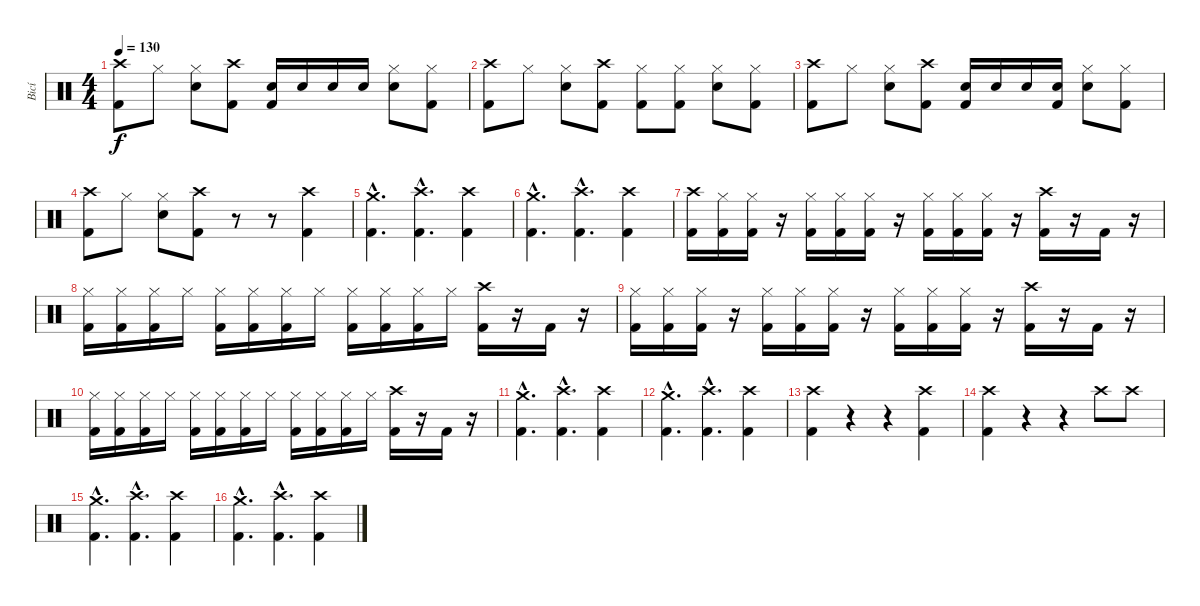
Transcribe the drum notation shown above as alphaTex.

\track ("Bicí" "Bicí") {instrument percussion}
\staff {score}
\articulation defaults
\ts (4 4)
\tempo 130
\clef neutral
\ks c
("Crash high (hit)" "Kick (hit) 2").8{dy f} "Hi-Hat (closed)".8 ("Hi-Hat (closed)" "Snare (hit) 2").8 ("Crash high (hit)" "Kick (hit) 2").8 ("Snare (hit) 2" "Kick (hit) 2").16 "Snare (hit) 2".16 "Snare (hit) 2".16 "Snare (hit) 2".16 ("Hi-Hat (closed)" "Snare (hit) 2").8 ("Hi-Hat (closed)" "Kick (hit) 2").8 |
("Crash high (hit)" "Kick (hit) 2").8 "Hi-Hat (closed)".8 ("Hi-Hat (closed)" "Snare (hit) 2").8 ("Crash high (hit)" "Kick (hit) 2").8 ("Hi-Hat (closed)" "Kick (hit) 2").8 ("Hi-Hat (closed)" "Kick (hit) 2").8 ("Hi-Hat (closed)" "Snare (hit) 2").8 ("Hi-Hat (closed)" "Kick (hit) 2").8 |
("Crash high (hit)" "Kick (hit) 2").8 "Hi-Hat (closed)".8 ("Hi-Hat (closed)" "Snare (hit) 2").8 ("Crash high (hit)" "Kick (hit) 2").8 ("Snare (hit) 2" "Kick (hit) 2").16 "Snare (hit) 2".16 "Snare (hit) 2".16 ("Snare (hit) 2" "Kick (hit) 2").16 ("Hi-Hat (closed)" "Snare (hit) 2").8 ("Hi-Hat (closed)" "Kick (hit) 2").8 |
("Crash high (hit)" "Kick (hit) 2").8 "Hi-Hat (closed)".8 ("Hi-Hat (closed)" "Snare (hit) 2").8 ("Crash high (hit)" "Kick (hit) 2").8 r.8 r.8 ("Crash high (hit)" "Kick (hit) 2").4 |
("Crash medium (hit)"{hac} "Kick (hit) 2"{hac}).4{d} ("Crash high (hit)"{hac} "Kick (hit) 2"{hac}).4{d} ("Crash high (hit)" "Kick (hit) 2").4 |
("Crash medium (hit)"{hac} "Kick (hit) 2"{hac}).4{d} ("Crash high (hit)"{hac} "Kick (hit) 2"{hac}).4{d} ("Crash high (hit)" "Kick (hit) 2").4 |
("Crash high (hit)" "Kick (hit) 2").16 ("Hi-Hat (closed)" "Kick (hit) 2").16 ("Hi-Hat (closed)" "Kick (hit) 2").16 r.16 ("Hi-Hat (closed)" "Kick (hit) 2").16 ("Hi-Hat (closed)" "Kick (hit) 2").16 ("Hi-Hat (closed)" "Kick (hit) 2").16 r.16 ("Hi-Hat (closed)" "Kick (hit) 2").16 ("Hi-Hat (closed)" "Kick (hit) 2").16 ("Hi-Hat (closed)" "Kick (hit) 2").16 r.16 ("Crash high (hit)" "Kick (hit) 2").16 r.16 "Kick (hit) 2".16 r.16 |
("Hi-Hat (closed)" "Kick (hit) 2").16 ("Hi-Hat (closed)" "Kick (hit) 2").16 ("Hi-Hat (closed)" "Kick (hit) 2").16 "Hi-Hat (closed)".16 ("Hi-Hat (closed)" "Kick (hit) 2").16 ("Hi-Hat (closed)" "Kick (hit) 2").16 ("Hi-Hat (closed)" "Kick (hit) 2").16 "Hi-Hat (closed)".16 ("Hi-Hat (closed)" "Kick (hit) 2").16 ("Hi-Hat (closed)" "Kick (hit) 2").16 ("Hi-Hat (closed)" "Kick (hit) 2").16 "Hi-Hat (closed)".16 ("Crash high (hit)" "Kick (hit) 2").16 r.16 "Kick (hit) 2".16 r.16 |
("Hi-Hat (closed)" "Kick (hit) 2").16 ("Hi-Hat (closed)" "Kick (hit) 2").16 ("Hi-Hat (closed)" "Kick (hit) 2").16 r.16 ("Hi-Hat (closed)" "Kick (hit) 2").16 ("Hi-Hat (closed)" "Kick (hit) 2").16 ("Hi-Hat (closed)" "Kick (hit) 2").16 r.16 ("Hi-Hat (closed)" "Kick (hit) 2").16 ("Hi-Hat (closed)" "Kick (hit) 2").16 ("Hi-Hat (closed)" "Kick (hit) 2").16 r.16 ("Crash high (hit)" "Kick (hit) 2").16 r.16 "Kick (hit) 2".16 r.16 |
("Hi-Hat (closed)" "Kick (hit) 2").16 ("Hi-Hat (closed)" "Kick (hit) 2").16 ("Hi-Hat (closed)" "Kick (hit) 2").16 "Hi-Hat (closed)".16 ("Hi-Hat (closed)" "Kick (hit) 2").16 ("Hi-Hat (closed)" "Kick (hit) 2").16 ("Hi-Hat (closed)" "Kick (hit) 2").16 "Hi-Hat (closed)".16 ("Hi-Hat (closed)" "Kick (hit) 2").16 ("Hi-Hat (closed)" "Kick (hit) 2").16 ("Hi-Hat (closed)" "Kick (hit) 2").16 "Hi-Hat (closed)".16 ("Crash high (hit)" "Kick (hit) 2").16 r.16 "Kick (hit) 2".16 r.16 |
("Crash medium (hit)"{hac} "Kick (hit) 2"{hac}).4{d} ("Crash high (hit)"{hac} "Kick (hit) 2"{hac}).4{d} ("Crash high (hit)" "Kick (hit) 2").4 |
("Crash medium (hit)"{hac} "Kick (hit) 2"{hac}).4{d} ("Crash high (hit)"{hac} "Kick (hit) 2"{hac}).4{d} ("Crash high (hit)" "Kick (hit) 2").4 |
("Crash high (hit)" "Kick (hit) 2").4 r.4 r.4 ("Crash high (hit)" "Kick (hit) 2").4 |
("Crash high (hit)" "Kick (hit) 2").4 r.4 r.4 "Crash high (hit)".8 "Crash high (hit)".8 |
("Crash medium (hit)"{hac} "Kick (hit) 2"{hac}).4{d} ("Crash high (hit)"{hac} "Kick (hit) 2"{hac}).4{d} ("Crash high (hit)" "Kick (hit) 2").4 |
("Crash medium (hit)"{hac} "Kick (hit) 2"{hac}).4{d} ("Crash high (hit)"{hac} "Kick (hit) 2"{hac}).4{d} ("Crash high (hit)" "Kick (hit) 2").4
